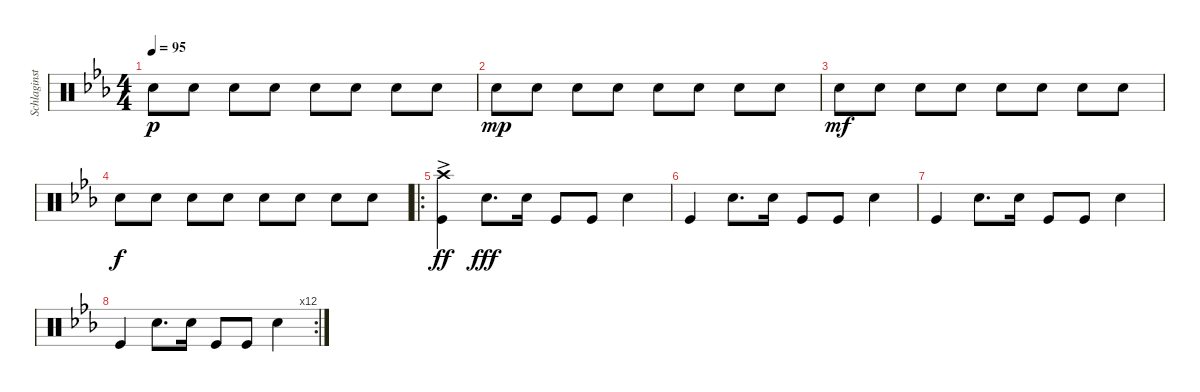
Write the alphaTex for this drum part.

\track ("Schlaginstrumente - Auswahl" "Schlaginst") {instrument percussion}
\staff {score}
\articulation defaults
\ts (4 4)
\tempo 95
\clef neutral
\ks eb "Electric Snare (hit)".8{dy p} "Electric Snare (hit)".8 "Electric Snare (hit)".8 "Electric Snare (hit)".8 "Electric Snare (hit)".8 "Electric Snare (hit)".8 "Electric Snare (hit)".8 "Electric Snare (hit)".8
|
"Electric Snare (hit)".8{dy mp} "Electric Snare (hit)".8 "Electric Snare (hit)".8 "Electric Snare (hit)".8 "Electric Snare (hit)".8 "Electric Snare (hit)".8 "Electric Snare (hit)".8 "Electric Snare (hit)".8 |
"Electric Snare (hit)".8{dy mf} "Electric Snare (hit)".8 "Electric Snare (hit)".8 "Electric Snare (hit)".8 "Electric Snare (hit)".8 "Electric Snare (hit)".8 "Electric Snare (hit)".8 "Electric Snare (hit)".8 |
"Electric Snare (hit)".8{dy f} "Electric Snare (hit)".8 "Electric Snare (hit)".8 "Electric Snare (hit)".8 "Electric Snare (hit)".8 "Electric Snare (hit)".8 "Electric Snare (hit)".8 "Electric Snare (hit)".8 |
\ro
("Crash high (hit)"{ac} "Kick (hit)").4{dy ff} "Snare (hit) 2".8{d dy fff} "Snare (hit) 2".16 "Kick (hit)".8 "Kick (hit)".8 "Snare (hit) 2".4 |
"Kick (hit)".4 "Snare (hit) 2".8{d} "Snare (hit) 2".16 "Kick (hit)".8 "Kick (hit)".8 "Snare (hit) 2".4 |
"Kick (hit)".4 "Snare (hit) 2".8{d} "Snare (hit) 2".16 "Kick (hit)".8 "Kick (hit)".8 "Snare (hit) 2".4 |
\rc 12 "Kick (hit)".4 "Snare (hit) 2".8{d} "Snare (hit) 2".16 "Kick (hit)".8 "Kick (hit)".8 "Snare (hit) 2".4
